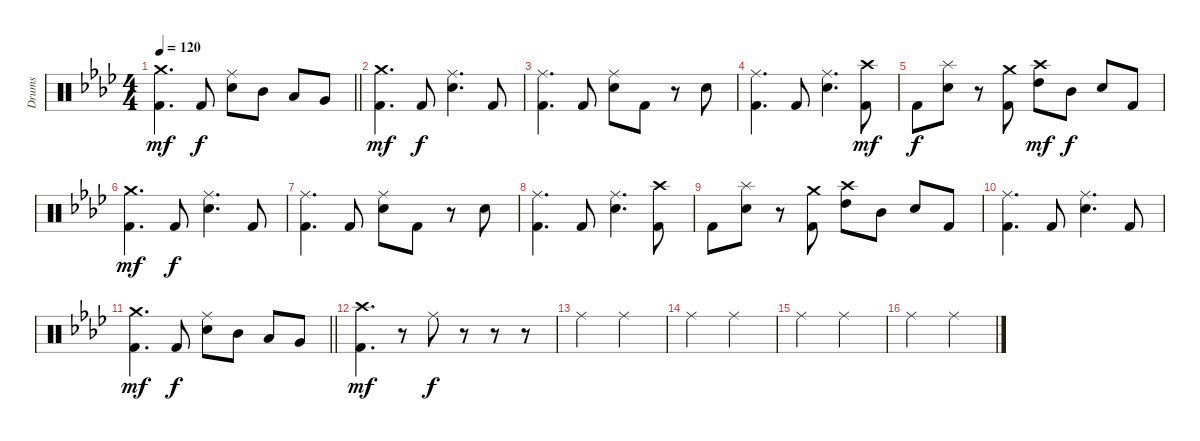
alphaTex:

\track ("Drums" "Drums") {instrument percussion}
\staff {score}
\articulation defaults
\ts (4 4)
\tempo 120
\clef neutral
\barLineRight lightlight
\ks ab
("Crash medium (hit)" "Kick (hit) 2").4{d dy mf} "Kick (hit) 2".8{dy f} ("Ride (middle)" "Snare (hit) 2").8 "Mid Tom (hit)".8 "Low Tom (hit)".8 "Very Low Tom (hit)".8 |
("Crash medium (hit)" "Kick (hit) 2").4{d dy mf} "Kick (hit) 2".8{dy f} ("Ride (middle)" "Snare (hit) 2").4{d} "Kick (hit) 2".8 |
("Ride (middle)" "Kick (hit) 2").4{d} "Kick (hit) 2".8 ("Ride (middle)" "Snare (hit) 2").8 "Kick (hit) 2".8 r.8 "Snare (hit) 2".8 |
("Ride (middle)" "Kick (hit) 2").4{d} "Kick (hit) 2".8 ("Ride (middle)" "Snare (hit) 2").4{d} ("Crash high (hit)" "Kick (hit) 2").8{dy mf} |
"Kick (hit) 2".8{dy f} ("Splash (hit)" "Snare (hit) 2").8 r.8 ("Crash medium (hit)" "Kick (hit) 2").8 ("Crash high (hit)" "High Tom (hit)").8{dy mf} "Mid Tom (hit)".8{dy f} "Snare (hit) 2".8 "Kick (hit) 2".8 |
("Crash medium (hit)" "Kick (hit) 2").4{d dy mf} "Kick (hit) 2".8{dy f} ("Ride (middle)" "Snare (hit) 2").4{d} "Kick (hit) 2".8 |
("Ride (middle)" "Kick (hit) 2").4{d} "Kick (hit) 2".8 ("Ride (middle)" "Snare (hit) 2").8 "Kick (hit) 2".8 r.8 "Snare (hit) 2".8 |
("Ride (middle)" "Kick (hit) 2").4{d} "Kick (hit) 2".8 ("Ride (middle)" "Snare (hit) 2").4{d} ("Crash high (hit)" "Kick (hit) 2").8 |
"Kick (hit) 2".8 ("Splash (hit)" "Snare (hit) 2").8 r.8 ("Crash medium (hit)" "Kick (hit) 2").8 ("Crash high (hit)" "High Tom (hit)").8 "Mid Tom (hit)".8 "Snare (hit) 2".8 "Kick (hit) 2".8 |
("Ride (middle)" "Kick (hit) 2").4{d} "Kick (hit) 2".8 ("Ride (middle)" "Snare (hit) 2").4{d} "Kick (hit) 2".8 |
\barLineRight lightlight
("Crash medium (hit)" "Kick (hit) 2").4{d dy mf} "Kick (hit) 2".8{dy f} ("Ride (middle)" "Snare (hit) 2").8 "Mid Tom (hit)".8 "Low Tom (hit)".8 "Very Low Tom (hit)".8 |
("Crash high (hit)" "Kick (hit) 2").4{d dy mf} r.8 "Ride (middle)".8{dy f} r.8 r.8 r.8 |
"Ride (middle)".2 "Ride (middle)".2 |
"Ride (middle)".2 "Ride (middle)".2 |
"Ride (middle)".2 "Ride (middle)".2 |
"Ride (middle)".2 "Ride (middle)".2
